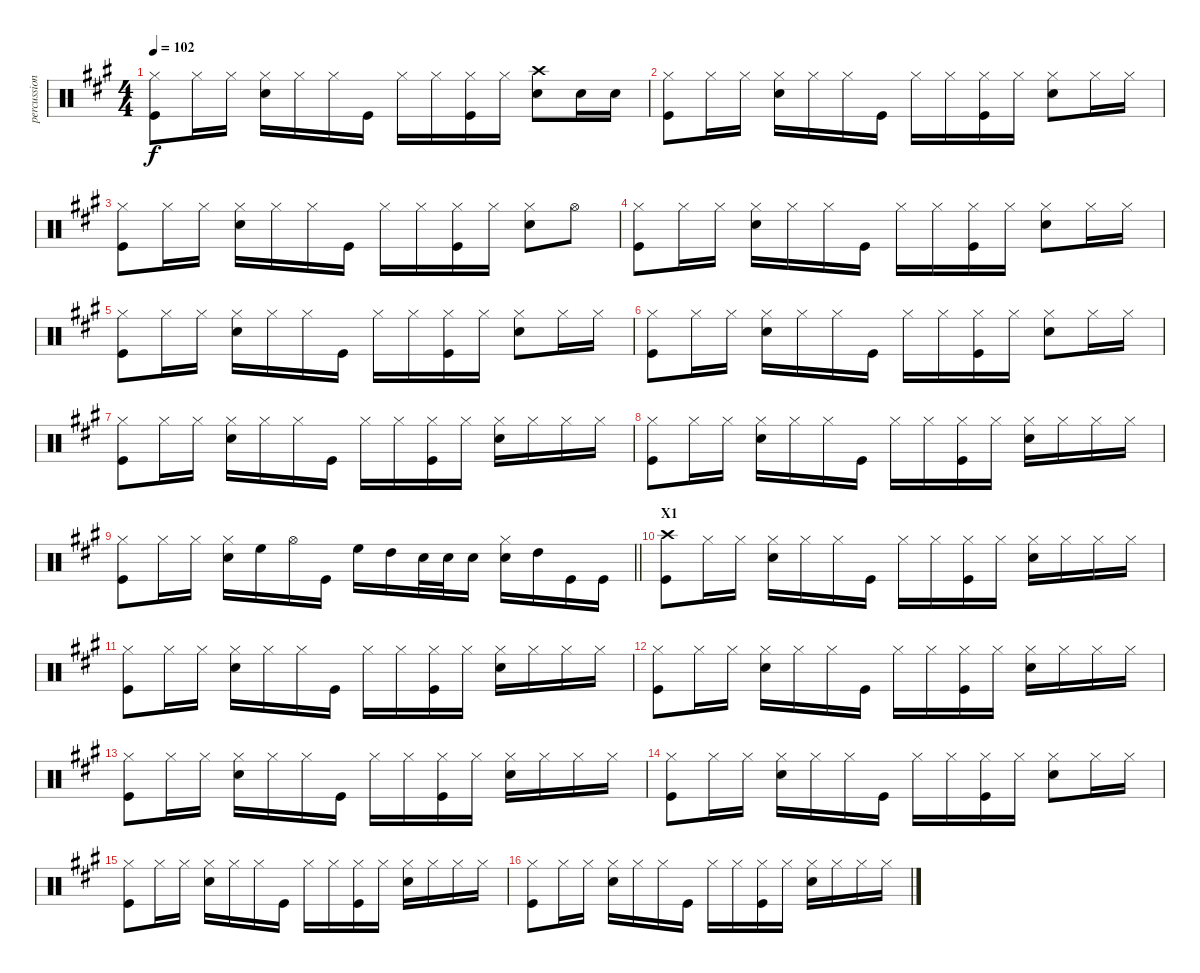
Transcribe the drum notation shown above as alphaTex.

\track ("percussion" "percussion") {instrument percussion}
\staff {score}
\articulation defaults
\ts (4 4)
\tempo 102
\clef neutral
\ks a
("Hi-Hat (closed)" "Kick (hit)").8{dy f} "Hi-Hat (closed)".16 "Hi-Hat (closed)".16 ("Electric Snare (hit)" "Hi-Hat (closed)").16 "Hi-Hat (closed)".16 "Hi-Hat (closed)".16 "Kick (hit)".16 "Hi-Hat (closed)".16 "Hi-Hat (closed)".16 ("Hi-Hat (closed)" "Kick (hit)").16 "Hi-Hat (closed)".16 ("Crash high (hit)" "Electric Snare (hit)").8 "Electric Snare (hit)".16 "Electric Snare (hit)".16 |
("Hi-Hat (closed)" "Kick (hit)").8 "Hi-Hat (closed)".16 "Hi-Hat (closed)".16 ("Electric Snare (hit)" "Hi-Hat (closed)").16 "Hi-Hat (closed)".16 "Hi-Hat (closed)".16 "Kick (hit)".16 "Hi-Hat (closed)".16 "Hi-Hat (closed)".16 ("Hi-Hat (closed)" "Kick (hit)").16 "Hi-Hat (closed)".16 ("Electric Snare (hit)" "Hi-Hat (closed)").8 "Hi-Hat (closed)".16 "Hi-Hat (closed)".16 |
("Hi-Hat (closed)" "Kick (hit)").8 "Hi-Hat (closed)".16 "Hi-Hat (closed)".16 ("Electric Snare (hit)" "Hi-Hat (closed)").16 "Hi-Hat (closed)".16 "Hi-Hat (closed)".16 "Kick (hit)".16 "Hi-Hat (closed)".16 "Hi-Hat (closed)".16 ("Hi-Hat (closed)" "Kick (hit)").16 "Hi-Hat (closed)".16 ("Electric Snare (hit)" "Hi-Hat (closed)").8 "Hi-Hat (open)".8 |
("Hi-Hat (closed)" "Kick (hit)").8 "Hi-Hat (closed)".16 "Hi-Hat (closed)".16 ("Electric Snare (hit)" "Hi-Hat (closed)").16 "Hi-Hat (closed)".16 "Hi-Hat (closed)".16 "Kick (hit)".16 "Hi-Hat (closed)".16 "Hi-Hat (closed)".16 ("Hi-Hat (closed)" "Kick (hit)").16 "Hi-Hat (closed)".16 ("Electric Snare (hit)" "Hi-Hat (closed)").8 "Hi-Hat (closed)".16 "Hi-Hat (closed)".16 |
("Hi-Hat (closed)" "Kick (hit)").8 "Hi-Hat (closed)".16 "Hi-Hat (closed)".16 ("Electric Snare (hit)" "Hi-Hat (closed)").16 "Hi-Hat (closed)".16 "Hi-Hat (closed)".16 "Kick (hit)".16 "Hi-Hat (closed)".16 "Hi-Hat (closed)".16 ("Hi-Hat (closed)" "Kick (hit)").16 "Hi-Hat (closed)".16 ("Electric Snare (hit)" "Hi-Hat (closed)").8 "Hi-Hat (closed)".16 "Hi-Hat (closed)".16 |
("Hi-Hat (closed)" "Kick (hit)").8 "Hi-Hat (closed)".16 "Hi-Hat (closed)".16 ("Electric Snare (hit)" "Hi-Hat (closed)").16 "Hi-Hat (closed)".16 "Hi-Hat (closed)".16 "Kick (hit)".16 "Hi-Hat (closed)".16 "Hi-Hat (closed)".16 ("Hi-Hat (closed)" "Kick (hit)").16 "Hi-Hat (closed)".16 ("Electric Snare (hit)" "Hi-Hat (closed)").8 "Hi-Hat (closed)".16 "Hi-Hat (closed)".16 |
("Hi-Hat (closed)" "Kick (hit)").8 "Hi-Hat (closed)".16 "Hi-Hat (closed)".16 ("Electric Snare (hit)" "Hi-Hat (closed)").16 "Hi-Hat (closed)".16 "Hi-Hat (closed)".16 "Kick (hit)".16 "Hi-Hat (closed)".16 "Hi-Hat (closed)".16 ("Hi-Hat (closed)" "Kick (hit)").16 "Hi-Hat (closed)".16 ("Electric Snare (hit)" "Hi-Hat (closed)").16 "Hi-Hat (closed)".16 "Hi-Hat (closed)".16 "Hi-Hat (closed)".16 |
("Hi-Hat (closed)" "Kick (hit)").8 "Hi-Hat (closed)".16 "Hi-Hat (closed)".16 ("Electric Snare (hit)" "Hi-Hat (closed)").16 "Hi-Hat (closed)".16 "Hi-Hat (closed)".16 "Kick (hit)".16 "Hi-Hat (closed)".16 "Hi-Hat (closed)".16 ("Hi-Hat (closed)" "Kick (hit)").16 "Hi-Hat (closed)".16 ("Electric Snare (hit)" "Hi-Hat (closed)").16 "Hi-Hat (closed)".16 "Hi-Hat (closed)".16 "Hi-Hat (closed)".16 |
\barLineRight lightlight
("Hi-Hat (closed)" "Kick (hit)").8 "Hi-Hat (closed)".16 "Hi-Hat (closed)".16 ("Electric Snare (hit)" "Hi-Hat (closed)").16 "High Floor Tom (hit)".16 "Hi-Hat (open)".16 "Kick (hit)".16 "High Floor Tom (hit)".16 "High Tom (hit)".16 "Electric Snare (hit)".32 "Electric Snare (hit)".32 "Electric Snare (hit)".16 ("Electric Snare (hit)" "Hi-Hat (closed)").16 "High Tom (hit)".16 "Kick (hit)".16 "Kick (hit)".16 |
\section ("" "X1")
("Crash high (hit)" "Kick (hit)").8 "Hi-Hat (closed)".16 "Hi-Hat (closed)".16 ("Electric Snare (hit)" "Hi-Hat (closed)").16 "Hi-Hat (closed)".16 "Hi-Hat (closed)".16 "Kick (hit)".16 "Hi-Hat (closed)".16 "Hi-Hat (closed)".16 ("Hi-Hat (closed)" "Kick (hit)").16 "Hi-Hat (closed)".16 ("Electric Snare (hit)" "Hi-Hat (closed)").16 "Hi-Hat (closed)".16 "Hi-Hat (closed)".16 "Hi-Hat (closed)".16 |
("Hi-Hat (closed)" "Kick (hit)").8 "Hi-Hat (closed)".16 "Hi-Hat (closed)".16 ("Electric Snare (hit)" "Hi-Hat (closed)").16 "Hi-Hat (closed)".16 "Hi-Hat (closed)".16 "Kick (hit)".16 "Hi-Hat (closed)".16 "Hi-Hat (closed)".16 ("Hi-Hat (closed)" "Kick (hit)").16 "Hi-Hat (closed)".16 ("Electric Snare (hit)" "Hi-Hat (closed)").16 "Hi-Hat (closed)".16 "Hi-Hat (closed)".16 "Hi-Hat (closed)".16 |
("Hi-Hat (closed)" "Kick (hit)").8 "Hi-Hat (closed)".16 "Hi-Hat (closed)".16 ("Electric Snare (hit)" "Hi-Hat (closed)").16 "Hi-Hat (closed)".16 "Hi-Hat (closed)".16 "Kick (hit)".16 "Hi-Hat (closed)".16 "Hi-Hat (closed)".16 ("Hi-Hat (closed)" "Kick (hit)").16 "Hi-Hat (closed)".16 ("Electric Snare (hit)" "Hi-Hat (closed)").16 "Hi-Hat (closed)".16 "Hi-Hat (closed)".16 "Hi-Hat (closed)".16 |
("Hi-Hat (closed)" "Kick (hit)").8 "Hi-Hat (closed)".16 "Hi-Hat (closed)".16 ("Electric Snare (hit)" "Hi-Hat (closed)").16 "Hi-Hat (closed)".16 "Hi-Hat (closed)".16 "Kick (hit)".16 "Hi-Hat (closed)".16 "Hi-Hat (closed)".16 ("Hi-Hat (closed)" "Kick (hit)").16 "Hi-Hat (closed)".16 ("Electric Snare (hit)" "Hi-Hat (closed)").16 "Hi-Hat (closed)".16 "Hi-Hat (closed)".16 "Hi-Hat (closed)".16 |
("Hi-Hat (closed)" "Kick (hit)").8 "Hi-Hat (closed)".16 "Hi-Hat (closed)".16 ("Electric Snare (hit)" "Hi-Hat (closed)").16 "Hi-Hat (closed)".16 "Hi-Hat (closed)".16 "Kick (hit)".16 "Hi-Hat (closed)".16 "Hi-Hat (closed)".16 ("Hi-Hat (closed)" "Kick (hit)").16 "Hi-Hat (closed)".16 ("Electric Snare (hit)" "Hi-Hat (closed)").8 "Hi-Hat (closed)".16 "Hi-Hat (closed)".16 |
("Hi-Hat (closed)" "Kick (hit)").8 "Hi-Hat (closed)".16 "Hi-Hat (closed)".16 ("Electric Snare (hit)" "Hi-Hat (closed)").16 "Hi-Hat (closed)".16 "Hi-Hat (closed)".16 "Kick (hit)".16 "Hi-Hat (closed)".16 "Hi-Hat (closed)".16 ("Hi-Hat (closed)" "Kick (hit)").16 "Hi-Hat (closed)".16 ("Electric Snare (hit)" "Hi-Hat (closed)").16 "Hi-Hat (closed)".16 "Hi-Hat (closed)".16 "Hi-Hat (closed)".16 |
("Hi-Hat (closed)" "Kick (hit)").8 "Hi-Hat (closed)".16 "Hi-Hat (closed)".16 ("Electric Snare (hit)" "Hi-Hat (closed)").16 "Hi-Hat (closed)".16 "Hi-Hat (closed)".16 "Kick (hit)".16 "Hi-Hat (closed)".16 "Hi-Hat (closed)".16 ("Hi-Hat (closed)" "Kick (hit)").16 "Hi-Hat (closed)".16 ("Electric Snare (hit)" "Hi-Hat (closed)").16 "Hi-Hat (closed)".16 "Hi-Hat (closed)".16 "Hi-Hat (closed)".16
